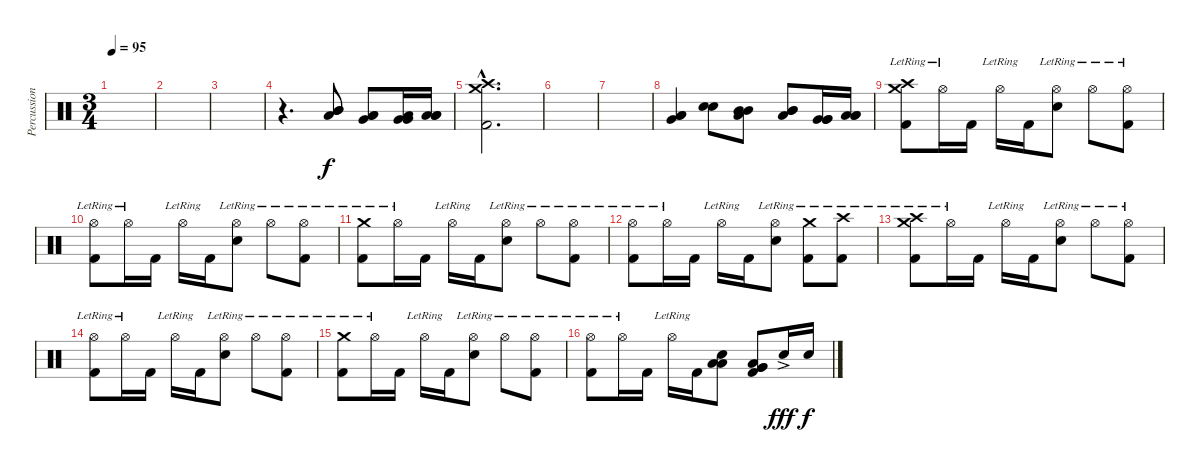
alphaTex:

\track ("Percussion I" "Percussion") {instrument percussion}
\staff {score}
\articulation defaults
\ts (3 4)
\tempo 95
\clef neutral
\ks c
|
|
|
r.4{d} ("Mid Tom (hit)" "Mid Tom (hit)" "Low Tom (hit)").8 ("Low Tom (hit)" "Low Tom (hit)" "Very Low Tom (hit)").8 ("Very Low Tom (hit)" "Very Low Tom (hit)" "Low Floor Tom (hit)").16 ("Low Floor Tom (hit)" "Low Floor Tom (hit)" "Low Floor Tom (hit)").16 |
("Crash high (hit)"{hac} "Crash medium (hit)"{hac} "Kick (hit) 2"{hac}).2{d} |
|
|
("Low Tom (hit)" "Low Tom (hit)" "Very Low Tom (hit)").4 ("Electric Snare (hit)" "Electric Snare (hit)").8 ("Mid Tom (hit)" "Mid Tom (hit)" "Low Tom (hit)").8 ("Mid Tom (hit)" "Mid Tom (hit)" "Low Tom (hit)").8 ("Very Low Tom (hit)" "Very Low Tom (hit)" "Very Low Tom (hit)").16 ("Low Floor Tom (hit)" "Low Floor Tom (hit)" "Low Floor Tom (hit)").16 |
("Crash medium (hit)"{lr} "Crash high (hit)"{lr} "Kick (hit) 2").8 "Hi-Hat (open)"{lr}.16 "Kick (hit) 2".16 "Hi-Hat (open)"{lr}.16 "Kick (hit) 2".16 ("Hi-Hat (open)"{lr} "Electric Snare (hit)").8 "Hi-Hat (open)"{lr}.8 ("Hi-Hat (open)"{lr} "Kick (hit) 2").8 |
("Hi-Hat (open)"{lr} "Kick (hit) 2").8 "Hi-Hat (open)"{lr}.16 "Kick (hit) 2".16 "Hi-Hat (open)"{lr}.16 "Kick (hit) 2".16 ("Hi-Hat (open)"{lr} "Electric Snare (hit)").8 "Hi-Hat (open)"{lr}.8 ("Hi-Hat (open)"{lr} "Kick (hit) 2").8 |
("Crash medium (hit)"{lr} "Kick (hit) 2").8 "Hi-Hat (open)"{lr}.16 "Kick (hit) 2".16 "Hi-Hat (open)"{lr}.16 "Kick (hit) 2".16 ("Hi-Hat (open)"{lr} "Electric Snare (hit)").8 "Hi-Hat (open)"{lr}.8 ("Hi-Hat (open)"{lr} "Kick (hit) 2").8 |
("Hi-Hat (open)"{lr} "Kick (hit) 2").8 "Hi-Hat (open)"{lr}.16 "Kick (hit) 2".16 "Hi-Hat (open)"{lr}.16 "Kick (hit) 2".16 ("Hi-Hat (open)"{lr} "Electric Snare (hit)").8 ("Crash medium (hit)"{lr} "Kick (hit) 2").8 ("Crash high (hit)"{lr} "Kick (hit) 2").8 |
("Crash medium (hit)"{lr} "Crash high (hit)"{lr} "Kick (hit) 2").8 "Hi-Hat (open)"{lr}.16 "Kick (hit) 2".16 "Hi-Hat (open)"{lr}.16 "Kick (hit) 2".16 ("Hi-Hat (open)"{lr} "Electric Snare (hit)").8 "Hi-Hat (open)"{lr}.8 ("Hi-Hat (open)"{lr} "Kick (hit) 2").8 |
("Hi-Hat (open)"{lr} "Kick (hit) 2").8 "Hi-Hat (open)"{lr}.16 "Kick (hit) 2".16 "Hi-Hat (open)"{lr}.16 "Kick (hit) 2".16 ("Hi-Hat (open)"{lr} "Electric Snare (hit)").8 "Hi-Hat (open)"{lr}.8 ("Hi-Hat (open)"{lr} "Kick (hit) 2").8 |
("Crash medium (hit)"{lr} "Kick (hit) 2").8 "Hi-Hat (open)"{lr}.16 "Kick (hit) 2".16 "Hi-Hat (open)"{lr}.16 "Kick (hit) 2".16 ("Hi-Hat (open)"{lr} "Electric Snare (hit)").8 "Hi-Hat (open)"{lr}.8 ("Hi-Hat (open)"{lr} "Kick (hit) 2").8 |
("Hi-Hat (open)"{lr} "Kick (hit) 2").8 "Hi-Hat (open)"{lr}.16 "Kick (hit) 2".16 "Hi-Hat (open)"{lr}.16 "Kick (hit) 2".16 ("Electric Snare (hit)" "Low Floor Tom (hit)" "Low Floor Tom (hit)").8 ("Very Low Tom (hit)" "Very Low Tom (hit)" "Low Floor Tom (hit)" "Kick (hit) 2").8 "Electric Snare (hit)"{ac}.16{dy fff} "Electric Snare (hit)".16{dy f}
